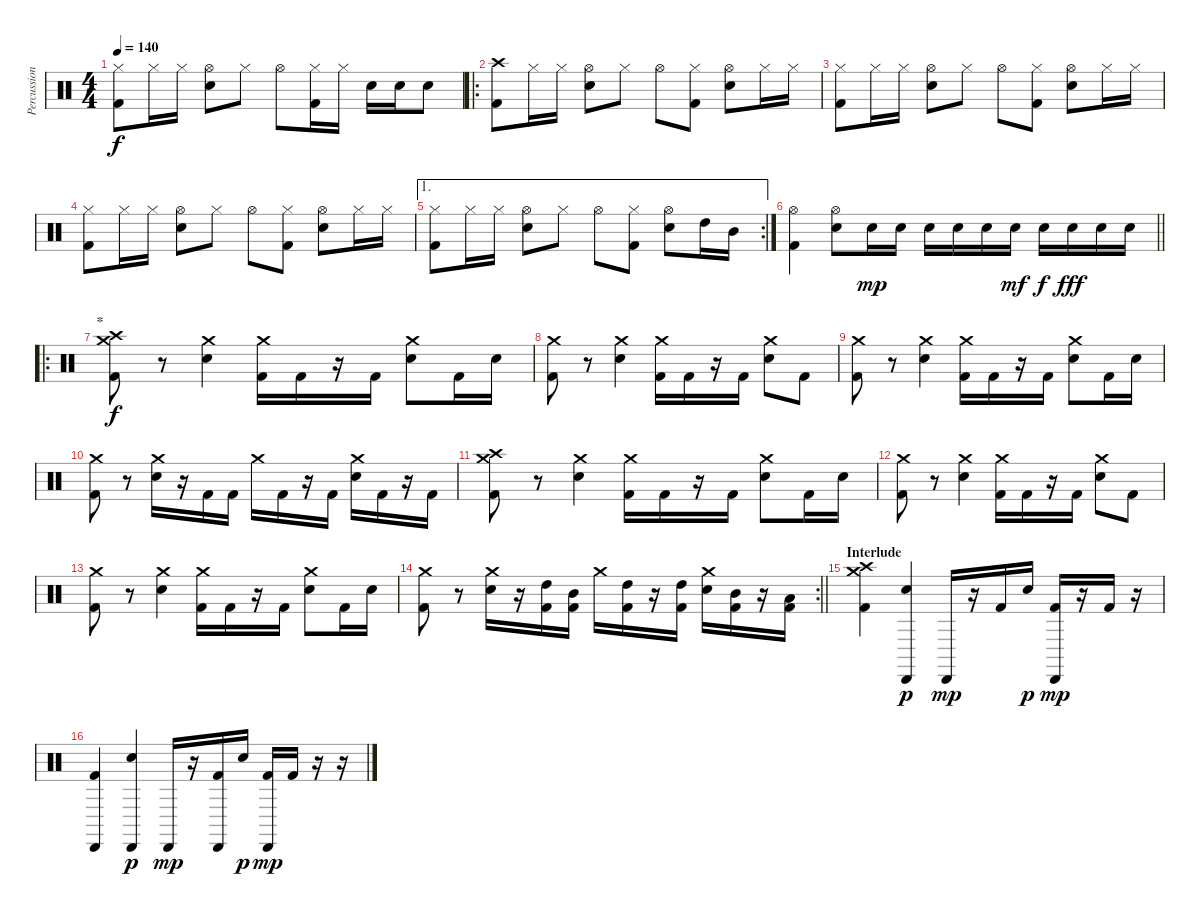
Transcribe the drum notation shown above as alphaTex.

\track ("Percussions" "Percussion") {instrument percussion}
\staff {score}
\articulation defaults
\ts (4 4)
\tempo 140
\clef neutral
\ks c
("Hi-Hat (closed)" "Kick (hit) 2").8{dy f} "Hi-Hat (closed)".16 "Hi-Hat (closed)".16 ("Hi-Hat (open)" "Snare (hit) 2").8 "Hi-Hat (closed)".8 "Hi-Hat (open)".8 ("Hi-Hat (closed)" "Kick (hit) 2").16 "Hi-Hat (closed)".16 "Snare (hit) 2".16 "Snare (hit) 2".16 "Snare (hit) 2".8 |
\ro
("Crash high (hit)" "Kick (hit) 2").8 "Hi-Hat (closed)".16 "Hi-Hat (closed)".16 ("Hi-Hat (open)" "Snare (hit) 2").8 "Hi-Hat (closed)".8 "Hi-Hat (open)".8 ("Hi-Hat (closed)" "Kick (hit) 2").8 ("Hi-Hat (open)" "Snare (hit) 2").8 "Hi-Hat (closed)".16 "Hi-Hat (closed)".16 |
("Hi-Hat (closed)" "Kick (hit) 2").8 "Hi-Hat (closed)".16 "Hi-Hat (closed)".16 ("Hi-Hat (open)" "Snare (hit) 2").8 "Hi-Hat (closed)".8 "Hi-Hat (open)".8 ("Hi-Hat (closed)" "Kick (hit) 2").8 ("Hi-Hat (open)" "Snare (hit) 2").8 "Hi-Hat (closed)".16 "Hi-Hat (closed)".16 |
("Hi-Hat (closed)" "Kick (hit) 2").8 "Hi-Hat (closed)".16 "Hi-Hat (closed)".16 ("Hi-Hat (open)" "Snare (hit) 2").8 "Hi-Hat (closed)".8 "Hi-Hat (open)".8 ("Hi-Hat (closed)" "Kick (hit) 2").8 ("Hi-Hat (open)" "Snare (hit) 2").8 "Hi-Hat (closed)".16 "Hi-Hat (closed)".16 |
\ae 1
\rc 2
("Hi-Hat (closed)" "Kick (hit) 2").8 "Hi-Hat (closed)".16 "Hi-Hat (closed)".16 ("Hi-Hat (open)" "Snare (hit) 2").8 "Hi-Hat (closed)".8 "Hi-Hat (open)".8 ("Hi-Hat (closed)" "Kick (hit) 2").8 ("Hi-Hat (open)" "Snare (hit) 2").8 "High Tom (hit)".16 "Mid Tom (hit)".16 |
\barLineRight lightlight
("Hi-Hat (open)" "Kick (hit) 2").4 ("Hi-Hat (open)" "Snare (hit) 2").8 "Snare (hit) 2".16{dy mp} "Snare (hit) 2".16 "Snare (hit) 2".16 "Snare (hit) 2".16 "Snare (hit) 2".16 "Snare (hit) 2".16{dy mf} "Snare (hit) 2".16{dy f} "Snare (hit) 2".16{dy fff} "Snare (hit) 2".16 "Snare (hit) 2".16 |
\ro
\section ("" "*")
("Crash medium (hit)" "Crash high (hit)" "Kick (hit) 2").8{dy f} r.8 ("Crash medium (hit)" "Snare (hit) 2").4 ("Crash medium (hit)" "Kick (hit) 2").16 "Kick (hit) 2".16 r.16 "Kick (hit) 2".16 ("Crash medium (hit)" "Snare (hit) 2").8 "Kick (hit) 2".16 "Snare (hit) 2".16 |
("Crash medium (hit)" "Kick (hit) 2").8 r.8 ("Crash medium (hit)" "Snare (hit) 2").4 ("Crash medium (hit)" "Kick (hit) 2").16 "Kick (hit) 2".16 r.16 "Kick (hit) 2".16 ("Crash medium (hit)" "Snare (hit) 2").8 "Kick (hit) 2".8 |
("Crash medium (hit)" "Kick (hit) 2").8 r.8 ("Crash medium (hit)" "Snare (hit) 2").4 ("Crash medium (hit)" "Kick (hit) 2").16 "Kick (hit) 2".16 r.16 "Kick (hit) 2".16 ("Crash medium (hit)" "Snare (hit) 2").8 "Kick (hit) 2".16 "Snare (hit) 2".16 |
("Crash medium (hit)" "Kick (hit) 2").8 r.8 ("Crash medium (hit)" "Snare (hit) 2").16 r.16 "Kick (hit) 2".16 "Kick (hit) 2".16 "Crash medium (hit)".16 "Kick (hit) 2".16 r.16 "Kick (hit) 2".16 ("Crash medium (hit)" "Snare (hit) 2").16 "Kick (hit) 2".16 r.16 "Kick (hit) 2".16 |
("Crash medium (hit)" "Crash high (hit)" "Kick (hit) 2").8 r.8 ("Crash medium (hit)" "Snare (hit) 2").4 ("Crash medium (hit)" "Kick (hit) 2").16 "Kick (hit) 2".16 r.16 "Kick (hit) 2".16 ("Crash medium (hit)" "Snare (hit) 2").8 "Kick (hit) 2".16 "Snare (hit) 2".16 |
("Crash medium (hit)" "Kick (hit) 2").8 r.8 ("Crash medium (hit)" "Snare (hit) 2").4 ("Crash medium (hit)" "Kick (hit) 2").16 "Kick (hit) 2".16 r.16 "Kick (hit) 2".16 ("Crash medium (hit)" "Snare (hit) 2").8 "Kick (hit) 2".8 |
("Crash medium (hit)" "Kick (hit) 2").8 r.8 ("Crash medium (hit)" "Snare (hit) 2").4 ("Crash medium (hit)" "Kick (hit) 2").16 "Kick (hit) 2".16 r.16 "Kick (hit) 2".16 ("Crash medium (hit)" "Snare (hit) 2").8 "Kick (hit) 2".16 "Snare (hit) 2".16 |
\rc 2
\barLineRight lightlight
("Crash medium (hit)" "Kick (hit) 2").8 r.8 ("Crash medium (hit)" "Snare (hit) 2").16 r.16 ("High Tom (hit)" "Kick (hit) 2").16 ("Mid Tom (hit)" "Kick (hit) 2").16 "Crash medium (hit)".16 ("High Tom (hit)" "Kick (hit) 2").16 r.16 ("High Tom (hit)" "Kick (hit) 2").16 ("Crash medium (hit)" "Snare (hit) 2").16 ("Mid Tom (hit)" "Kick (hit) 2").16 r.16 ("Low Tom (hit)" "Kick (hit) 2").16 |
\section ("" "Interlude")
("Crash high (hit)" "Crash medium (hit)" "Kick (hit) 2").4 ("Cabasa (hit)" "Snare (hit) 2").4{dy p} "Cabasa (hit)".16{dy mp} r.16 "Kick (hit) 2".16 "Snare (hit) 2".16{dy p} ("Cabasa (hit)" "Kick (hit) 2").16{dy mp} r.16 "Kick (hit) 2".16 r.16 |
("Cabasa (hit)" "Kick (hit) 2").4 ("Cabasa (hit)" "Snare (hit) 2").4{dy p} "Cabasa (hit)".16{dy mp} r.16 ("Cabasa (hit)" "Kick (hit) 2").16 "Snare (hit) 2".16{dy p} ("Cabasa (hit)" "Kick (hit) 2").16{dy mp} "Kick (hit) 2".16 r.16 r.16
